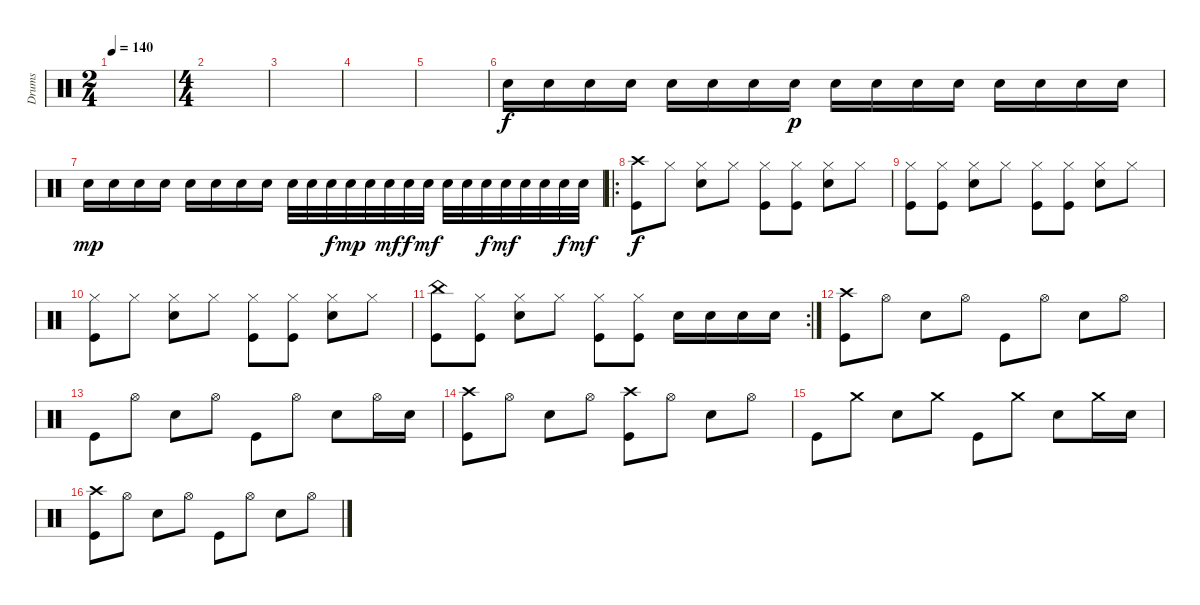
\track ("Drums" "Drums") {instrument percussion}
\staff {score}
\articulation defaults
\ts (2 4)
\tempo 140
\clef neutral
\ks c
|
\ts (4 4)
|
|
|
|
"Electric Snare (hit)".16 "Electric Snare (hit)".16 "Electric Snare (hit)".16 "Electric Snare (hit)".16 "Electric Snare (hit)".16 "Electric Snare (hit)".16 "Electric Snare (hit)".16 "Electric Snare (hit)".16{dy p} "Electric Snare (hit)".16 "Electric Snare (hit)".16 "Electric Snare (hit)".16 "Electric Snare (hit)".16 "Electric Snare (hit)".16 "Electric Snare (hit)".16 "Electric Snare (hit)".16 "Electric Snare (hit)".16 |
"Electric Snare (hit)".16{dy mp} "Electric Snare (hit)".16 "Electric Snare (hit)".16 "Electric Snare (hit)".16 "Electric Snare (hit)".16 "Electric Snare (hit)".16 "Electric Snare (hit)".16 "Electric Snare (hit)".16 "Electric Snare (hit)".32 "Electric Snare (hit)".32 "Electric Snare (hit)".32{dy f} "Electric Snare (hit)".32{dy mp} "Electric Snare (hit)".32 "Electric Snare (hit)".32{dy mf} "Electric Snare (hit)".32{dy f} "Electric Snare (hit)".32{dy mf} "Electric Snare (hit)".32 "Electric Snare (hit)".32 "Electric Snare (hit)".32{dy f} "Electric Snare (hit)".32{dy mf} "Electric Snare (hit)".32 "Electric Snare (hit)".32 "Electric Snare (hit)".32{dy f} "Electric Snare (hit)".32{dy mf} |
\ro
("Crash high (hit)" "Kick (hit)").8{dy f} "Hi-Hat (closed)".8 ("Electric Snare (hit)" "Hi-Hat (closed)").8 "Hi-Hat (closed)".8 ("Hi-Hat (closed)" "Kick (hit)").8 ("Hi-Hat (closed)" "Kick (hit)").8 ("Electric Snare (hit)" "Hi-Hat (closed)").8 "Hi-Hat (closed)".8 |
("Hi-Hat (closed)" "Kick (hit)").8 ("Hi-Hat (closed)" "Kick (hit)").8 ("Electric Snare (hit)" "Hi-Hat (closed)").8 "Hi-Hat (closed)".8 ("Hi-Hat (closed)" "Kick (hit)").8 ("Hi-Hat (closed)" "Kick (hit)").8 ("Electric Snare (hit)" "Hi-Hat (closed)").8 "Hi-Hat (closed)".8 |
("Hi-Hat (closed)" "Kick (hit)").8 "Hi-Hat (closed)".8 ("Electric Snare (hit)" "Hi-Hat (closed)").8 "Hi-Hat (closed)".8 ("Hi-Hat (closed)" "Kick (hit)").8 ("Hi-Hat (closed)" "Kick (hit)").8 ("Electric Snare (hit)" "Hi-Hat (closed)").8 "Hi-Hat (closed)".8 |
\rc 2
("China (hit)" "Kick (hit)").8 ("Hi-Hat (closed)" "Kick (hit)").8 ("Electric Snare (hit)" "Hi-Hat (closed)").8 "Hi-Hat (closed)".8 ("Hi-Hat (closed)" "Kick (hit)").8 ("Hi-Hat (closed)" "Kick (hit)").8 "Electric Snare (hit)".16 "Electric Snare (hit)".16 "Electric Snare (hit)".16 "Electric Snare (hit)".16 |
("Crash high (hit)" "Kick (hit)").8 "Hi-Hat (open)".8 "Electric Snare (hit)".8 "Hi-Hat (open)".8 "Kick (hit)".8 "Hi-Hat (open)".8 "Electric Snare (hit)".8 "Hi-Hat (open)".8 |
"Kick (hit)".8 "Hi-Hat (open)".8 "Electric Snare (hit)".8 "Hi-Hat (open)".8 "Kick (hit)".8 "Hi-Hat (open)".8 "Electric Snare (hit)".8 "Hi-Hat (open)".16 "Electric Snare (hit)".16 |
("Crash high (hit)" "Kick (hit)").8 "Hi-Hat (open)".8 "Electric Snare (hit)".8 "Hi-Hat (open)".8 ("Crash high (hit)" "Kick (hit)").8 "Hi-Hat (open)".8 "Electric Snare (hit)".8 "Hi-Hat (open)".8 |
"Kick (hit)".8 "Crash medium (hit)".8 "Electric Snare (hit)".8 "Crash medium (hit)".8 "Kick (hit)".8 "Crash medium (hit)".8 "Electric Snare (hit)".8 "Crash medium (hit)".16 "Electric Snare (hit)".16 |
("Crash high (hit)" "Kick (hit)").8 "Hi-Hat (open)".8 "Electric Snare (hit)".8 "Hi-Hat (open)".8 "Kick (hit)".8 "Hi-Hat (open)".8 "Electric Snare (hit)".8 "Hi-Hat (open)".8
